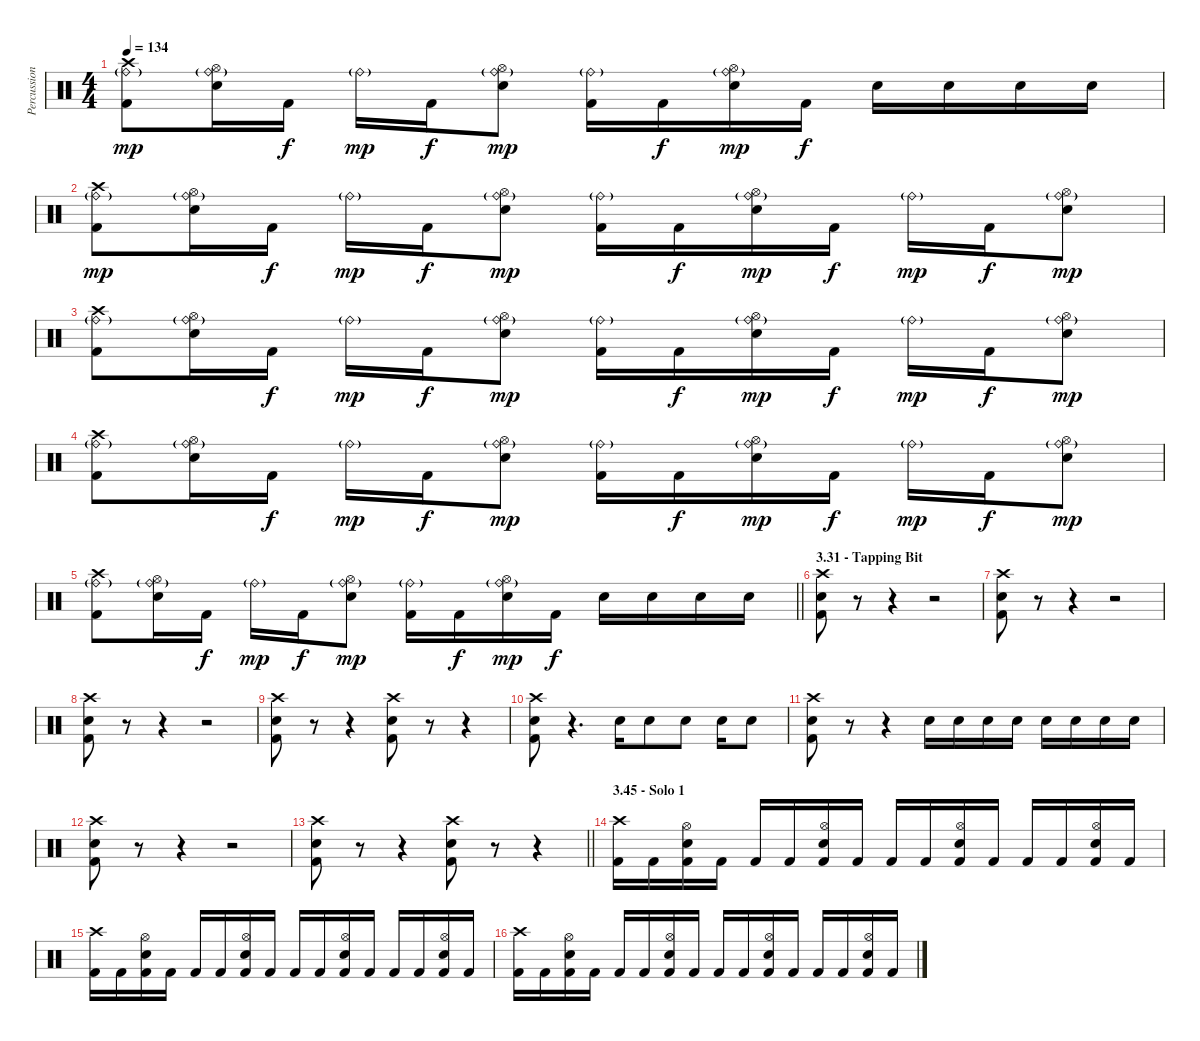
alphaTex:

\track ("Percussion" "Percussion") {instrument percussion}
\staff {score}
\articulation defaults
\ts (4 4)
\tempo 134
\clef neutral
\ks aminor
("Crash high (hit)" "Ride (bell)"{g} "Kick (hit) 2").8{dy mp} ("Hi-Hat (open)" "Ride (bell)"{g} "Electric Snare (hit)").16 "Kick (hit) 2".16{dy f} "Ride (bell)"{g}.16{dy mp} "Kick (hit) 2".16{dy f} ("Hi-Hat (open)" "Ride (bell)"{g} "Electric Snare (hit)").8{dy mp} ("Ride (bell)"{g} "Kick (hit) 2").16 "Kick (hit) 2".16{dy f} ("Hi-Hat (open)" "Ride (bell)"{g} "Electric Snare (hit)").16{dy mp} "Kick (hit) 2".16{dy f} "Electric Snare (hit)".16 "Electric Snare (hit)".16 "Electric Snare (hit)".16 "Electric Snare (hit)".16 |
("Crash high (hit)" "Ride (bell)"{g} "Kick (hit) 2").8{dy mp} ("Hi-Hat (open)" "Ride (bell)"{g} "Electric Snare (hit)").16 "Kick (hit) 2".16{dy f} "Ride (bell)"{g}.16{dy mp} "Kick (hit) 2".16{dy f} ("Hi-Hat (open)" "Ride (bell)"{g} "Electric Snare (hit)").8{dy mp} ("Ride (bell)"{g} "Kick (hit) 2").16 "Kick (hit) 2".16{dy f} ("Hi-Hat (open)" "Ride (bell)"{g} "Electric Snare (hit)").16{dy mp} "Kick (hit) 2".16{dy f} "Ride (bell)"{g}.16{dy mp} "Kick (hit) 2".16{dy f} ("Hi-Hat (open)" "Ride (bell)"{g} "Electric Snare (hit)").8{dy mp} |
("Crash high (hit)" "Ride (bell)"{g} "Kick (hit) 2").8 ("Hi-Hat (open)" "Ride (bell)"{g} "Electric Snare (hit)").16 "Kick (hit) 2".16{dy f} "Ride (bell)"{g}.16{dy mp} "Kick (hit) 2".16{dy f} ("Hi-Hat (open)" "Ride (bell)"{g} "Electric Snare (hit)").8{dy mp} ("Ride (bell)"{g} "Kick (hit) 2").16 "Kick (hit) 2".16{dy f} ("Hi-Hat (open)" "Ride (bell)"{g} "Electric Snare (hit)").16{dy mp} "Kick (hit) 2".16{dy f} "Ride (bell)"{g}.16{dy mp} "Kick (hit) 2".16{dy f} ("Hi-Hat (open)" "Ride (bell)"{g} "Electric Snare (hit)").8{dy mp} |
("Crash high (hit)" "Ride (bell)"{g} "Kick (hit) 2").8 ("Hi-Hat (open)" "Ride (bell)"{g} "Electric Snare (hit)").16 "Kick (hit) 2".16{dy f} "Ride (bell)"{g}.16{dy mp} "Kick (hit) 2".16{dy f} ("Hi-Hat (open)" "Ride (bell)"{g} "Electric Snare (hit)").8{dy mp} ("Ride (bell)"{g} "Kick (hit) 2").16 "Kick (hit) 2".16{dy f} ("Hi-Hat (open)" "Ride (bell)"{g} "Electric Snare (hit)").16{dy mp} "Kick (hit) 2".16{dy f} "Ride (bell)"{g}.16{dy mp} "Kick (hit) 2".16{dy f} ("Hi-Hat (open)" "Ride (bell)"{g} "Electric Snare (hit)").8{dy mp} |
\barLineRight lightlight
("Crash high (hit)" "Ride (bell)"{g} "Kick (hit) 2").8 ("Hi-Hat (open)" "Ride (bell)"{g} "Electric Snare (hit)").16 "Kick (hit) 2".16{dy f} "Ride (bell)"{g}.16{dy mp} "Kick (hit) 2".16{dy f} ("Hi-Hat (open)" "Ride (bell)"{g} "Electric Snare (hit)").8{dy mp} ("Ride (bell)"{g} "Kick (hit) 2").16 "Kick (hit) 2".16{dy f} ("Hi-Hat (open)" "Ride (bell)"{g} "Electric Snare (hit)").16{dy mp} "Kick (hit) 2".16{dy f} "Electric Snare (hit)".16 "Electric Snare (hit)".16 "Electric Snare (hit)".16 "Electric Snare (hit)".16 |
\section ("" "3.31 - Tapping Bit")
("Crash high (hit)" "Electric Snare (hit)" "Kick (hit) 2").8 r.8 r.4 r.2 |
("Crash high (hit)" "Electric Snare (hit)" "Kick (hit) 2").8 r.8 r.4 r.2 |
("Crash high (hit)" "Electric Snare (hit)" "Kick (hit) 2").8 r.8 r.4 r.2 |
("Crash high (hit)" "Electric Snare (hit)" "Kick (hit) 2").8 r.8 r.4 ("Crash high (hit)" "Electric Snare (hit)" "Kick (hit) 2").8 r.8 r.4 |
("Crash high (hit)" "Electric Snare (hit)" "Kick (hit) 2").8 r.4{d} "Electric Snare (hit)".16 "Electric Snare (hit)".8 "Electric Snare (hit)".8 "Electric Snare (hit)".16 "Electric Snare (hit)".8 |
("Crash high (hit)" "Electric Snare (hit)" "Kick (hit) 2").8 r.8 r.4 "Electric Snare (hit)".16 "Electric Snare (hit)".16 "Electric Snare (hit)".16 "Electric Snare (hit)".16 "Electric Snare (hit)".16 "Electric Snare (hit)".16 "Electric Snare (hit)".16 "Electric Snare (hit)".16 |
("Crash high (hit)" "Electric Snare (hit)" "Kick (hit) 2").8 r.8 r.4 r.2 |
\barLineRight lightlight
("Crash high (hit)" "Electric Snare (hit)" "Kick (hit) 2").8 r.8 r.4 ("Crash high (hit)" "Electric Snare (hit)" "Kick (hit) 2").8 r.8 r.4 |
\section ("" "3.45 - Solo 1")
("Crash high (hit)" "Kick (hit) 2").16 "Kick (hit) 2".16 ("Hi-Hat (open)" "Electric Snare (hit)" "Kick (hit) 2").16 "Kick (hit) 2".16 "Kick (hit) 2".16 "Kick (hit) 2".16 ("Hi-Hat (open)" "Electric Snare (hit)" "Kick (hit) 2").16 "Kick (hit) 2".16 "Kick (hit) 2".16 "Kick (hit) 2".16 ("Hi-Hat (open)" "Electric Snare (hit)" "Kick (hit) 2").16 "Kick (hit) 2".16 "Kick (hit) 2".16 "Kick (hit) 2".16 ("Hi-Hat (open)" "Electric Snare (hit)" "Kick (hit) 2").16 "Kick (hit) 2".16 |
("Crash high (hit)" "Kick (hit) 2").16 "Kick (hit) 2".16 ("Hi-Hat (open)" "Electric Snare (hit)" "Kick (hit) 2").16 "Kick (hit) 2".16 "Kick (hit) 2".16 "Kick (hit) 2".16 ("Hi-Hat (open)" "Electric Snare (hit)" "Kick (hit) 2").16 "Kick (hit) 2".16 "Kick (hit) 2".16 "Kick (hit) 2".16 ("Hi-Hat (open)" "Electric Snare (hit)" "Kick (hit) 2").16 "Kick (hit) 2".16 "Kick (hit) 2".16 "Kick (hit) 2".16 ("Hi-Hat (open)" "Electric Snare (hit)" "Kick (hit) 2").16 "Kick (hit) 2".16 |
("Crash high (hit)" "Kick (hit) 2").16 "Kick (hit) 2".16 ("Hi-Hat (open)" "Electric Snare (hit)" "Kick (hit) 2").16 "Kick (hit) 2".16 "Kick (hit) 2".16 "Kick (hit) 2".16 ("Hi-Hat (open)" "Electric Snare (hit)" "Kick (hit) 2").16 "Kick (hit) 2".16 "Kick (hit) 2".16 "Kick (hit) 2".16 ("Hi-Hat (open)" "Electric Snare (hit)" "Kick (hit) 2").16 "Kick (hit) 2".16 "Kick (hit) 2".16 "Kick (hit) 2".16 ("Hi-Hat (open)" "Electric Snare (hit)" "Kick (hit) 2").16 "Kick (hit) 2".16
